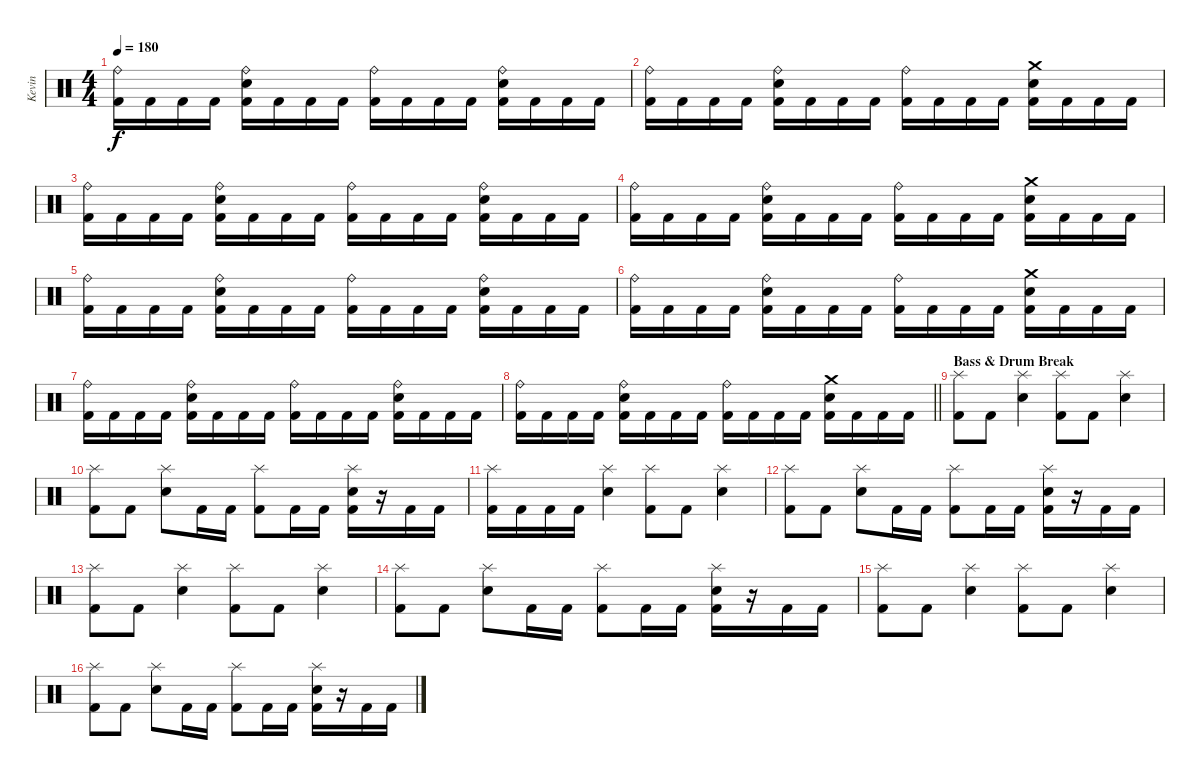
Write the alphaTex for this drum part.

\track ("Kevin" "Kevin") {instrument percussion}
\staff {score}
\articulation defaults
\ts (4 4)
\tempo 180
\clef neutral
\ks c
("Ride (bell)" "Kick (hit) 2").16{dy f} "Kick (hit) 2".16 "Kick (hit) 2".16 "Kick (hit) 2".16 ("Ride (bell)" "Electric Snare (hit)" "Kick (hit) 2").16 "Kick (hit) 2".16 "Kick (hit) 2".16 "Kick (hit) 2".16 ("Ride (bell)" "Kick (hit) 2").16 "Kick (hit) 2".16 "Kick (hit) 2".16 "Kick (hit) 2".16 ("Ride (bell)" "Electric Snare (hit)" "Kick (hit) 2").16 "Kick (hit) 2".16 "Kick (hit) 2".16 "Kick (hit) 2".16 |
("Ride (bell)" "Kick (hit) 2").16 "Kick (hit) 2".16 "Kick (hit) 2".16 "Kick (hit) 2".16 ("Ride (bell)" "Electric Snare (hit)" "Kick (hit) 2").16 "Kick (hit) 2".16 "Kick (hit) 2".16 "Kick (hit) 2".16 ("Ride (bell)" "Kick (hit) 2").16 "Kick (hit) 2".16 "Kick (hit) 2".16 "Kick (hit) 2".16 ("Crash medium (hit)" "Electric Snare (hit)" "Kick (hit) 2").16 "Kick (hit) 2".16 "Kick (hit) 2".16 "Kick (hit) 2".16 |
("Ride (bell)" "Kick (hit) 2").16 "Kick (hit) 2".16 "Kick (hit) 2".16 "Kick (hit) 2".16 ("Ride (bell)" "Electric Snare (hit)" "Kick (hit) 2").16 "Kick (hit) 2".16 "Kick (hit) 2".16 "Kick (hit) 2".16 ("Ride (bell)" "Kick (hit) 2").16 "Kick (hit) 2".16 "Kick (hit) 2".16 "Kick (hit) 2".16 ("Ride (bell)" "Electric Snare (hit)" "Kick (hit) 2").16 "Kick (hit) 2".16 "Kick (hit) 2".16 "Kick (hit) 2".16 |
("Ride (bell)" "Kick (hit) 2").16 "Kick (hit) 2".16 "Kick (hit) 2".16 "Kick (hit) 2".16 ("Ride (bell)" "Electric Snare (hit)" "Kick (hit) 2").16 "Kick (hit) 2".16 "Kick (hit) 2".16 "Kick (hit) 2".16 ("Ride (bell)" "Kick (hit) 2").16 "Kick (hit) 2".16 "Kick (hit) 2".16 "Kick (hit) 2".16 ("Crash medium (hit)" "Electric Snare (hit)" "Kick (hit) 2").16 "Kick (hit) 2".16 "Kick (hit) 2".16 "Kick (hit) 2".16 |
("Ride (bell)" "Kick (hit) 2").16 "Kick (hit) 2".16 "Kick (hit) 2".16 "Kick (hit) 2".16 ("Ride (bell)" "Electric Snare (hit)" "Kick (hit) 2").16 "Kick (hit) 2".16 "Kick (hit) 2".16 "Kick (hit) 2".16 ("Ride (bell)" "Kick (hit) 2").16 "Kick (hit) 2".16 "Kick (hit) 2".16 "Kick (hit) 2".16 ("Ride (bell)" "Electric Snare (hit)" "Kick (hit) 2").16 "Kick (hit) 2".16 "Kick (hit) 2".16 "Kick (hit) 2".16 |
("Ride (bell)" "Kick (hit) 2").16 "Kick (hit) 2".16 "Kick (hit) 2".16 "Kick (hit) 2".16 ("Ride (bell)" "Electric Snare (hit)" "Kick (hit) 2").16 "Kick (hit) 2".16 "Kick (hit) 2".16 "Kick (hit) 2".16 ("Ride (bell)" "Kick (hit) 2").16 "Kick (hit) 2".16 "Kick (hit) 2".16 "Kick (hit) 2".16 ("Crash medium (hit)" "Electric Snare (hit)" "Kick (hit) 2").16 "Kick (hit) 2".16 "Kick (hit) 2".16 "Kick (hit) 2".16 |
("Ride (bell)" "Kick (hit) 2").16 "Kick (hit) 2".16 "Kick (hit) 2".16 "Kick (hit) 2".16 ("Ride (bell)" "Electric Snare (hit)" "Kick (hit) 2").16 "Kick (hit) 2".16 "Kick (hit) 2".16 "Kick (hit) 2".16 ("Ride (bell)" "Kick (hit) 2").16 "Kick (hit) 2".16 "Kick (hit) 2".16 "Kick (hit) 2".16 ("Ride (bell)" "Electric Snare (hit)" "Kick (hit) 2").16 "Kick (hit) 2".16 "Kick (hit) 2".16 "Kick (hit) 2".16 |
\barLineRight lightlight
("Ride (bell)" "Kick (hit) 2").16 "Kick (hit) 2".16 "Kick (hit) 2".16 "Kick (hit) 2".16 ("Ride (bell)" "Electric Snare (hit)" "Kick (hit) 2").16 "Kick (hit) 2".16 "Kick (hit) 2".16 "Kick (hit) 2".16 ("Ride (bell)" "Kick (hit) 2").16 "Kick (hit) 2".16 "Kick (hit) 2".16 "Kick (hit) 2".16 ("Crash medium (hit)" "Electric Snare (hit)" "Kick (hit) 2").16 "Kick (hit) 2".16 "Kick (hit) 2".16 "Kick (hit) 2".16 |
\section ("" "Bass & Drum Break")
("Splash (hit)" "Kick (hit) 2").8 "Kick (hit) 2".8 ("Splash (hit)" "Electric Snare (hit)").4 ("Splash (hit)" "Kick (hit) 2").8 "Kick (hit) 2".8 ("Splash (hit)" "Electric Snare (hit)").4 |
("Splash (hit)" "Kick (hit) 2").8 "Kick (hit) 2".8 ("Splash (hit)" "Electric Snare (hit)").8 "Kick (hit) 2".16 "Kick (hit) 2".16 ("Splash (hit)" "Kick (hit) 2").8 "Kick (hit) 2".16 "Kick (hit) 2".16 ("Splash (hit)" "Electric Snare (hit)" "Kick (hit) 2").16 r.16 "Kick (hit) 2".16 "Kick (hit) 2".16 |
("Splash (hit)" "Kick (hit) 2").16 "Kick (hit) 2".16 "Kick (hit) 2".16 "Kick (hit) 2".16 ("Splash (hit)" "Electric Snare (hit)").4 ("Splash (hit)" "Kick (hit) 2").8 "Kick (hit) 2".8 ("Splash (hit)" "Electric Snare (hit)").4 |
("Splash (hit)" "Kick (hit) 2").8 "Kick (hit) 2".8 ("Splash (hit)" "Electric Snare (hit)").8 "Kick (hit) 2".16 "Kick (hit) 2".16 ("Splash (hit)" "Kick (hit) 2").8 "Kick (hit) 2".16 "Kick (hit) 2".16 ("Splash (hit)" "Electric Snare (hit)" "Kick (hit) 2").16 r.16 "Kick (hit) 2".16 "Kick (hit) 2".16 |
("Splash (hit)" "Kick (hit) 2").8 "Kick (hit) 2".8 ("Splash (hit)" "Electric Snare (hit)").4 ("Splash (hit)" "Kick (hit) 2").8 "Kick (hit) 2".8 ("Splash (hit)" "Electric Snare (hit)").4 |
("Splash (hit)" "Kick (hit) 2").8 "Kick (hit) 2".8 ("Splash (hit)" "Electric Snare (hit)").8 "Kick (hit) 2".16 "Kick (hit) 2".16 ("Splash (hit)" "Kick (hit) 2").8 "Kick (hit) 2".16 "Kick (hit) 2".16 ("Splash (hit)" "Electric Snare (hit)" "Kick (hit) 2").16 r.16 "Kick (hit) 2".16 "Kick (hit) 2".16 |
("Splash (hit)" "Kick (hit) 2").8 "Kick (hit) 2".8 ("Splash (hit)" "Electric Snare (hit)").4 ("Splash (hit)" "Kick (hit) 2").8 "Kick (hit) 2".8 ("Splash (hit)" "Electric Snare (hit)").4 |
("Splash (hit)" "Kick (hit) 2").8 "Kick (hit) 2".8 ("Splash (hit)" "Electric Snare (hit)").8 "Kick (hit) 2".16 "Kick (hit) 2".16 ("Splash (hit)" "Kick (hit) 2").8 "Kick (hit) 2".16 "Kick (hit) 2".16 ("Splash (hit)" "Electric Snare (hit)" "Kick (hit) 2").16 r.16 "Kick (hit) 2".16 "Kick (hit) 2".16
